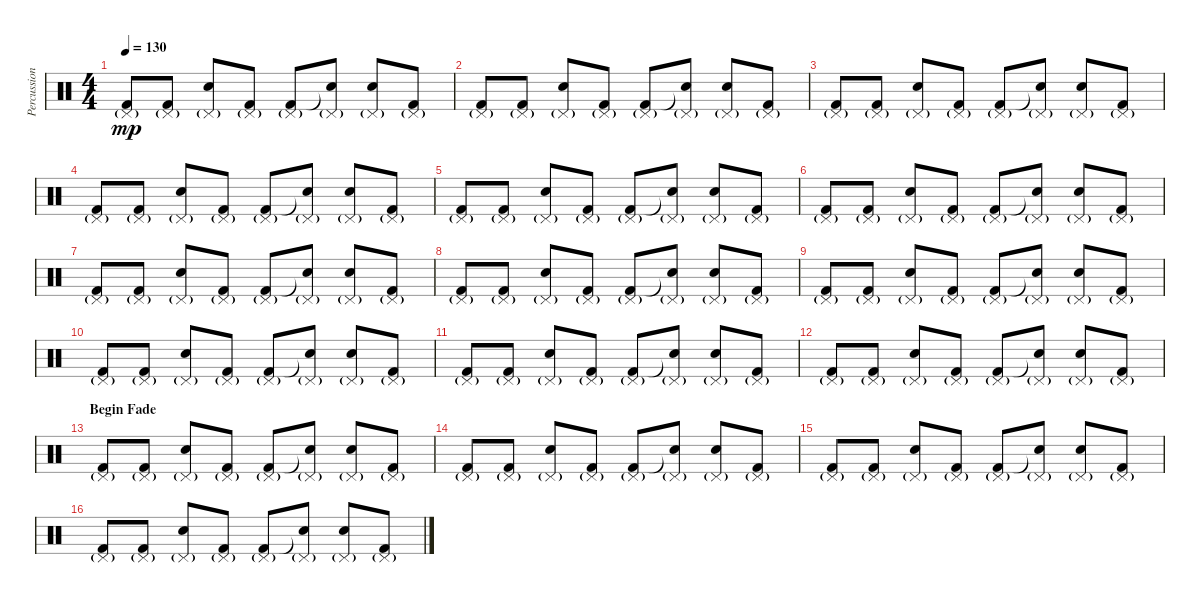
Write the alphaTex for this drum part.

\track ("Percussioni" "Percussion") {instrument percussion}
\staff {score}
\articulation defaults
\ts (4 4)
\tempo 130
\clef neutral
\ks c
("Pedal Hi-Hat (hit)"{g} "Kick (hit) 2").8{dy mp} ("Pedal Hi-Hat (hit)"{g} "Kick (hit) 2").8 ("Pedal Hi-Hat (hit)"{g} "Snare (hit) 2").8 ("Pedal Hi-Hat (hit)"{g} "Kick (hit) 2").8 ("Pedal Hi-Hat (hit)"{g} "Kick (hit) 2").8 ("Pedal Hi-Hat (hit)"{g} "Snare (hit)"{t}).8 ("Pedal Hi-Hat (hit)"{g} "Snare (hit) 2").8 ("Pedal Hi-Hat (hit)"{g} "Kick (hit) 2").8 |
("Pedal Hi-Hat (hit)"{g} "Kick (hit) 2").8 ("Pedal Hi-Hat (hit)"{g} "Kick (hit) 2").8 ("Pedal Hi-Hat (hit)"{g} "Snare (hit) 2").8 ("Pedal Hi-Hat (hit)"{g} "Kick (hit) 2").8 ("Pedal Hi-Hat (hit)"{g} "Kick (hit) 2").8 ("Pedal Hi-Hat (hit)"{g} "Snare (hit)"{t}).8 ("Pedal Hi-Hat (hit)"{g} "Snare (hit) 2").8 ("Pedal Hi-Hat (hit)"{g} "Kick (hit) 2").8 |
("Pedal Hi-Hat (hit)"{g} "Kick (hit) 2").8 ("Pedal Hi-Hat (hit)"{g} "Kick (hit) 2").8 ("Pedal Hi-Hat (hit)"{g} "Snare (hit) 2").8 ("Pedal Hi-Hat (hit)"{g} "Kick (hit) 2").8 ("Pedal Hi-Hat (hit)"{g} "Kick (hit) 2").8 ("Pedal Hi-Hat (hit)"{g} "Snare (hit)"{t}).8 ("Pedal Hi-Hat (hit)"{g} "Snare (hit) 2").8 ("Pedal Hi-Hat (hit)"{g} "Kick (hit) 2").8 |
("Pedal Hi-Hat (hit)"{g} "Kick (hit) 2").8 ("Pedal Hi-Hat (hit)"{g} "Kick (hit) 2").8 ("Pedal Hi-Hat (hit)"{g} "Snare (hit) 2").8 ("Pedal Hi-Hat (hit)"{g} "Kick (hit) 2").8 ("Pedal Hi-Hat (hit)"{g} "Kick (hit) 2").8 ("Pedal Hi-Hat (hit)"{g} "Snare (hit)"{t}).8 ("Pedal Hi-Hat (hit)"{g} "Snare (hit) 2").8 ("Pedal Hi-Hat (hit)"{g} "Kick (hit) 2").8 |
("Pedal Hi-Hat (hit)"{g} "Kick (hit) 2").8 ("Pedal Hi-Hat (hit)"{g} "Kick (hit) 2").8 ("Pedal Hi-Hat (hit)"{g} "Snare (hit) 2").8 ("Pedal Hi-Hat (hit)"{g} "Kick (hit) 2").8 ("Pedal Hi-Hat (hit)"{g} "Kick (hit) 2").8 ("Pedal Hi-Hat (hit)"{g} "Snare (hit)"{t}).8 ("Pedal Hi-Hat (hit)"{g} "Snare (hit) 2").8 ("Pedal Hi-Hat (hit)"{g} "Kick (hit) 2").8 |
("Pedal Hi-Hat (hit)"{g} "Kick (hit) 2").8 ("Pedal Hi-Hat (hit)"{g} "Kick (hit) 2").8 ("Pedal Hi-Hat (hit)"{g} "Snare (hit) 2").8 ("Pedal Hi-Hat (hit)"{g} "Kick (hit) 2").8 ("Pedal Hi-Hat (hit)"{g} "Kick (hit) 2").8 ("Pedal Hi-Hat (hit)"{g} "Snare (hit)"{t}).8 ("Pedal Hi-Hat (hit)"{g} "Snare (hit) 2").8 ("Pedal Hi-Hat (hit)"{g} "Kick (hit) 2").8 |
("Pedal Hi-Hat (hit)"{g} "Kick (hit) 2").8 ("Pedal Hi-Hat (hit)"{g} "Kick (hit) 2").8 ("Pedal Hi-Hat (hit)"{g} "Snare (hit) 2").8 ("Pedal Hi-Hat (hit)"{g} "Kick (hit) 2").8 ("Pedal Hi-Hat (hit)"{g} "Kick (hit) 2").8 ("Pedal Hi-Hat (hit)"{g} "Snare (hit)"{t}).8 ("Pedal Hi-Hat (hit)"{g} "Snare (hit) 2").8 ("Pedal Hi-Hat (hit)"{g} "Kick (hit) 2").8 |
("Pedal Hi-Hat (hit)"{g} "Kick (hit) 2").8 ("Pedal Hi-Hat (hit)"{g} "Kick (hit) 2").8 ("Pedal Hi-Hat (hit)"{g} "Snare (hit) 2").8 ("Pedal Hi-Hat (hit)"{g} "Kick (hit) 2").8 ("Pedal Hi-Hat (hit)"{g} "Kick (hit) 2").8 ("Pedal Hi-Hat (hit)"{g} "Snare (hit)"{t}).8 ("Pedal Hi-Hat (hit)"{g} "Snare (hit) 2").8 ("Pedal Hi-Hat (hit)"{g} "Kick (hit) 2").8 |
("Pedal Hi-Hat (hit)"{g} "Kick (hit) 2").8 ("Pedal Hi-Hat (hit)"{g} "Kick (hit) 2").8 ("Pedal Hi-Hat (hit)"{g} "Snare (hit) 2").8 ("Pedal Hi-Hat (hit)"{g} "Kick (hit) 2").8 ("Pedal Hi-Hat (hit)"{g} "Kick (hit) 2").8 ("Pedal Hi-Hat (hit)"{g} "Snare (hit)"{t}).8 ("Pedal Hi-Hat (hit)"{g} "Snare (hit) 2").8 ("Pedal Hi-Hat (hit)"{g} "Kick (hit) 2").8 |
("Pedal Hi-Hat (hit)"{g} "Kick (hit) 2").8 ("Pedal Hi-Hat (hit)"{g} "Kick (hit) 2").8 ("Pedal Hi-Hat (hit)"{g} "Snare (hit) 2").8 ("Pedal Hi-Hat (hit)"{g} "Kick (hit) 2").8 ("Pedal Hi-Hat (hit)"{g} "Kick (hit) 2").8 ("Pedal Hi-Hat (hit)"{g} "Snare (hit)"{t}).8 ("Pedal Hi-Hat (hit)"{g} "Snare (hit) 2").8 ("Pedal Hi-Hat (hit)"{g} "Kick (hit) 2").8 |
("Pedal Hi-Hat (hit)"{g} "Kick (hit) 2").8 ("Pedal Hi-Hat (hit)"{g} "Kick (hit) 2").8 ("Pedal Hi-Hat (hit)"{g} "Snare (hit) 2").8 ("Pedal Hi-Hat (hit)"{g} "Kick (hit) 2").8 ("Pedal Hi-Hat (hit)"{g} "Kick (hit) 2").8 ("Pedal Hi-Hat (hit)"{g} "Snare (hit)"{t}).8 ("Pedal Hi-Hat (hit)"{g} "Snare (hit) 2").8 ("Pedal Hi-Hat (hit)"{g} "Kick (hit) 2").8 |
("Pedal Hi-Hat (hit)"{g} "Kick (hit) 2").8 ("Pedal Hi-Hat (hit)"{g} "Kick (hit) 2").8 ("Pedal Hi-Hat (hit)"{g} "Snare (hit) 2").8 ("Pedal Hi-Hat (hit)"{g} "Kick (hit) 2").8 ("Pedal Hi-Hat (hit)"{g} "Kick (hit) 2").8 ("Pedal Hi-Hat (hit)"{g} "Snare (hit)"{t}).8 ("Pedal Hi-Hat (hit)"{g} "Snare (hit) 2").8 ("Pedal Hi-Hat (hit)"{g} "Kick (hit) 2").8 |
\section ("" "Begin Fade")
("Pedal Hi-Hat (hit)"{g} "Kick (hit) 2").8 ("Pedal Hi-Hat (hit)"{g} "Kick (hit) 2").8 ("Pedal Hi-Hat (hit)"{g} "Snare (hit) 2").8 ("Pedal Hi-Hat (hit)"{g} "Kick (hit) 2").8 ("Pedal Hi-Hat (hit)"{g} "Kick (hit) 2").8 ("Pedal Hi-Hat (hit)"{g} "Snare (hit)"{t}).8 ("Pedal Hi-Hat (hit)"{g} "Snare (hit) 2").8 ("Pedal Hi-Hat (hit)"{g} "Kick (hit) 2").8 |
("Pedal Hi-Hat (hit)"{g} "Kick (hit) 2").8 ("Pedal Hi-Hat (hit)"{g} "Kick (hit) 2").8 ("Pedal Hi-Hat (hit)"{g} "Snare (hit) 2").8 ("Pedal Hi-Hat (hit)"{g} "Kick (hit) 2").8 ("Pedal Hi-Hat (hit)"{g} "Kick (hit) 2").8 ("Pedal Hi-Hat (hit)"{g} "Snare (hit)"{t}).8 ("Pedal Hi-Hat (hit)"{g} "Snare (hit) 2").8 ("Pedal Hi-Hat (hit)"{g} "Kick (hit) 2").8 |
("Pedal Hi-Hat (hit)"{g} "Kick (hit) 2").8 ("Pedal Hi-Hat (hit)"{g} "Kick (hit) 2").8 ("Pedal Hi-Hat (hit)"{g} "Snare (hit) 2").8 ("Pedal Hi-Hat (hit)"{g} "Kick (hit) 2").8 ("Pedal Hi-Hat (hit)"{g} "Kick (hit) 2").8 ("Pedal Hi-Hat (hit)"{g} "Snare (hit)"{t}).8 ("Pedal Hi-Hat (hit)"{g} "Snare (hit) 2").8 ("Pedal Hi-Hat (hit)"{g} "Kick (hit) 2").8 |
("Pedal Hi-Hat (hit)"{g} "Kick (hit) 2").8 ("Pedal Hi-Hat (hit)"{g} "Kick (hit) 2").8 ("Pedal Hi-Hat (hit)"{g} "Snare (hit) 2").8 ("Pedal Hi-Hat (hit)"{g} "Kick (hit) 2").8 ("Pedal Hi-Hat (hit)"{g} "Kick (hit) 2").8 ("Pedal Hi-Hat (hit)"{g} "Snare (hit)"{t}).8 ("Pedal Hi-Hat (hit)"{g} "Snare (hit) 2").8 ("Pedal Hi-Hat (hit)"{g} "Kick (hit) 2").8
